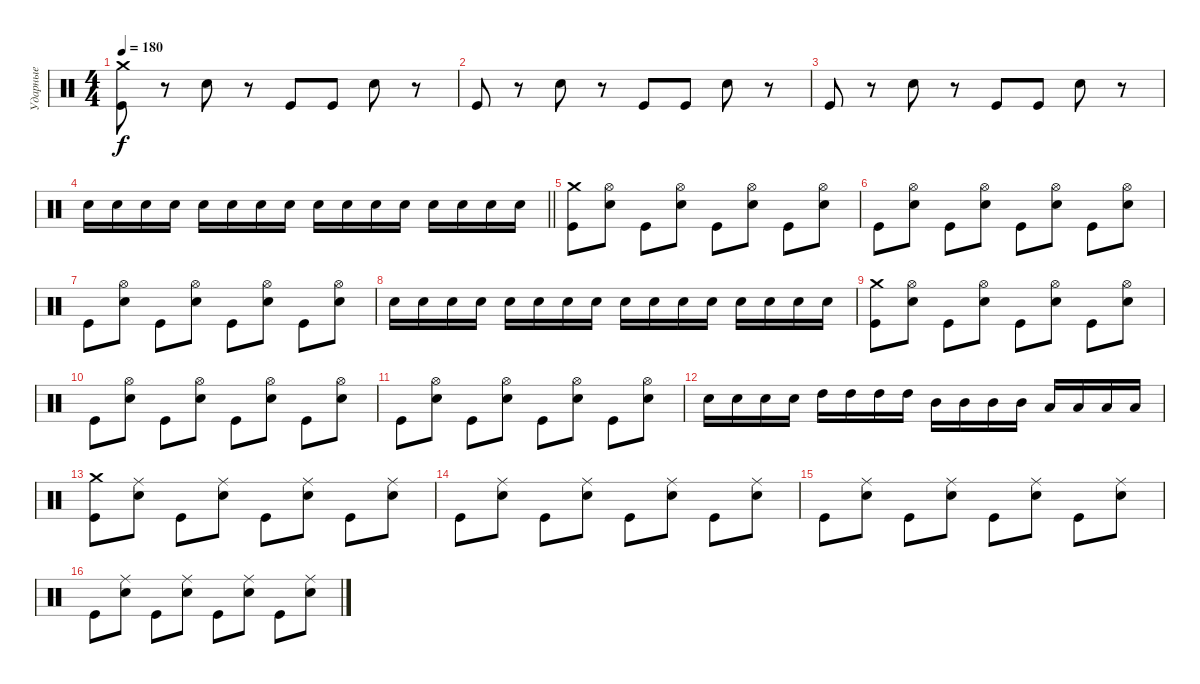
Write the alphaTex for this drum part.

\track ("Ударные" "Ударные") {instrument percussion}
\staff {score}
\articulation defaults
\ts (4 4)
\tempo 180
\clef neutral
\ks c
("Crash medium (hit)" "Kick (hit)").8{dy f} r.8 "Electric Snare (hit)".8 r.8 "Kick (hit)".8 "Kick (hit)".8 "Electric Snare (hit)".8 r.8 |
"Kick (hit)".8 r.8 "Electric Snare (hit)".8 r.8 "Kick (hit)".8 "Kick (hit)".8 "Electric Snare (hit)".8 r.8 |
"Kick (hit)".8 r.8 "Electric Snare (hit)".8 r.8 "Kick (hit)".8 "Kick (hit)".8 "Electric Snare (hit)".8 r.8 |
\barLineRight lightlight "Electric Snare (hit)".16 "Electric Snare (hit)".16 "Electric Snare (hit)".16 "Electric Snare (hit)".16 "Electric Snare (hit)".16 "Electric Snare (hit)".16 "Electric Snare (hit)".16 "Electric Snare (hit)".16 "Electric Snare (hit)".16 "Electric Snare (hit)".16 "Electric Snare (hit)".16 "Electric Snare (hit)".16 "Electric Snare (hit)".16 "Electric Snare (hit)".16 "Electric Snare (hit)".16 "Electric Snare (hit)".16
|
("Crash medium (hit)" "Kick (hit)").8 ("Hi-Hat (open)" "Electric Snare (hit)").8 "Kick (hit)".8 ("Hi-Hat (open)" "Electric Snare (hit)").8 "Kick (hit)".8 ("Hi-Hat (open)" "Electric Snare (hit)").8 "Kick (hit)".8 ("Hi-Hat (open)" "Electric Snare (hit)").8 |
"Kick (hit)".8 ("Hi-Hat (open)" "Electric Snare (hit)").8 "Kick (hit)".8 ("Hi-Hat (open)" "Electric Snare (hit)").8 "Kick (hit)".8 ("Hi-Hat (open)" "Electric Snare (hit)").8 "Kick (hit)".8 ("Hi-Hat (open)" "Electric Snare (hit)").8 |
"Kick (hit)".8 ("Hi-Hat (open)" "Electric Snare (hit)").8 "Kick (hit)".8 ("Hi-Hat (open)" "Electric Snare (hit)").8 "Kick (hit)".8 ("Hi-Hat (open)" "Electric Snare (hit)").8 "Kick (hit)".8 ("Hi-Hat (open)" "Electric Snare (hit)").8 |
"Electric Snare (hit)".16 "Electric Snare (hit)".16 "Electric Snare (hit)".16 "Electric Snare (hit)".16 "Electric Snare (hit)".16 "Electric Snare (hit)".16 "Electric Snare (hit)".16 "Electric Snare (hit)".16 "Electric Snare (hit)".16 "Electric Snare (hit)".16 "Electric Snare (hit)".16 "Electric Snare (hit)".16 "Electric Snare (hit)".16 "Electric Snare (hit)".16 "Electric Snare (hit)".16 "Electric Snare (hit)".16 |
("Crash medium (hit)" "Kick (hit)").8 ("Hi-Hat (open)" "Electric Snare (hit)").8 "Kick (hit)".8 ("Hi-Hat (open)" "Electric Snare (hit)").8 "Kick (hit)".8 ("Hi-Hat (open)" "Electric Snare (hit)").8 "Kick (hit)".8 ("Hi-Hat (open)" "Electric Snare (hit)").8 |
"Kick (hit)".8 ("Hi-Hat (open)" "Electric Snare (hit)").8 "Kick (hit)".8 ("Hi-Hat (open)" "Electric Snare (hit)").8 "Kick (hit)".8 ("Hi-Hat (open)" "Electric Snare (hit)").8 "Kick (hit)".8 ("Hi-Hat (open)" "Electric Snare (hit)").8 |
"Kick (hit)".8 ("Hi-Hat (open)" "Electric Snare (hit)").8 "Kick (hit)".8 ("Hi-Hat (open)" "Electric Snare (hit)").8 "Kick (hit)".8 ("Hi-Hat (open)" "Electric Snare (hit)").8 "Kick (hit)".8 ("Hi-Hat (open)" "Electric Snare (hit)").8 |
"Electric Snare (hit)".16 "Electric Snare (hit)".16 "Electric Snare (hit)".16 "Electric Snare (hit)".16 "High Tom (hit)".16 "High Tom (hit)".16 "High Tom (hit)".16 "High Tom (hit)".16 "Mid Tom (hit)".16 "Mid Tom (hit)".16 "Mid Tom (hit)".16 "Mid Tom (hit)".16 "Low Tom (hit)".16 "Low Tom (hit)".16 "Low Tom (hit)".16 "Low Tom (hit)".16 |
("Crash medium (hit)" "Kick (hit)").8 ("Ride (middle)" "Electric Snare (hit)").8 "Kick (hit)".8 ("Ride (middle)" "Electric Snare (hit)").8 "Kick (hit)".8 ("Ride (middle)" "Electric Snare (hit)").8 "Kick (hit)".8 ("Ride (middle)" "Electric Snare (hit)").8 |
"Kick (hit)".8 ("Ride (middle)" "Electric Snare (hit)").8 "Kick (hit)".8 ("Ride (middle)" "Electric Snare (hit)").8 "Kick (hit)".8 ("Ride (middle)" "Electric Snare (hit)").8 "Kick (hit)".8 ("Ride (middle)" "Electric Snare (hit)").8 |
"Kick (hit)".8 ("Ride (middle)" "Electric Snare (hit)").8 "Kick (hit)".8 ("Ride (middle)" "Electric Snare (hit)").8 "Kick (hit)".8 ("Ride (middle)" "Electric Snare (hit)").8 "Kick (hit)".8 ("Ride (middle)" "Electric Snare (hit)").8 |
"Kick (hit)".8 ("Ride (middle)" "Electric Snare (hit)").8 "Kick (hit)".8 ("Ride (middle)" "Electric Snare (hit)").8 "Kick (hit)".8 ("Ride (middle)" "Electric Snare (hit)").8 "Kick (hit)".8 ("Ride (middle)" "Electric Snare (hit)").8
